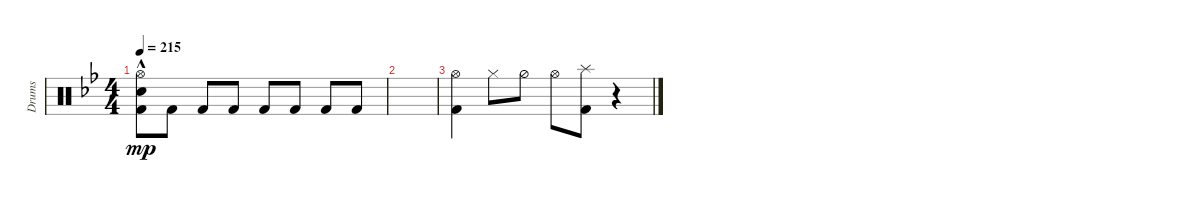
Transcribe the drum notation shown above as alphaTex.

\defaultSystemsLayout 4
\bracketExtendMode groupsimilarinstruments
\otherSystemsTrackNameOrientation horizontal
\track ("Drumkit" "Drums") {instrument percussion}
\staff {score}
\articulation defaults
\ts (4 4)
\tempo 215
\clef neutral
\scale
0.333333
\ks bb
("Snare (hit) 2"{hac acc forcenatural} "Kick (hit) 2"{acc forcenatural} "Hi-Hat (open)"{acc forcenatural}).8{dy mp beam Down} "Kick (hit) 2"{acc forcenatural}.8{beam Down} "Kick (hit) 2"{acc forcenatural}.8{beam Up} "Kick (hit) 2"{acc forcenatural}.8{beam Up} "Kick (hit) 2"{acc forcenatural}.8{beam Up} "Kick (hit) 2"{acc forcenatural}.8{beam Up} "Kick (hit) 2"{acc forcenatural}.8{beam Up} "Kick (hit) 2"{acc forcenatural}.8{beam Up} |
\scale
0.333333 |
\scale
0.333333 ("Hi-Hat (open)"{acc forcenatural} "Kick (hit) 2"{acc forcenatural}).4{beam Down} "Hi-Hat (closed)"{acc forcenatural}.8{beam Down} "Hi-Hat (half)"{acc forcenatural}.8{beam Down} "Hi-Hat (open)"{acc forcenatural}.8{beam Down} ("Splash (hit)"{acc forcenatural} "Kick (hit) 2"{acc forcenatural}).8{beam Down} r.4{beam Down} |
\scale
0.333333 |
\scale
0.262911
